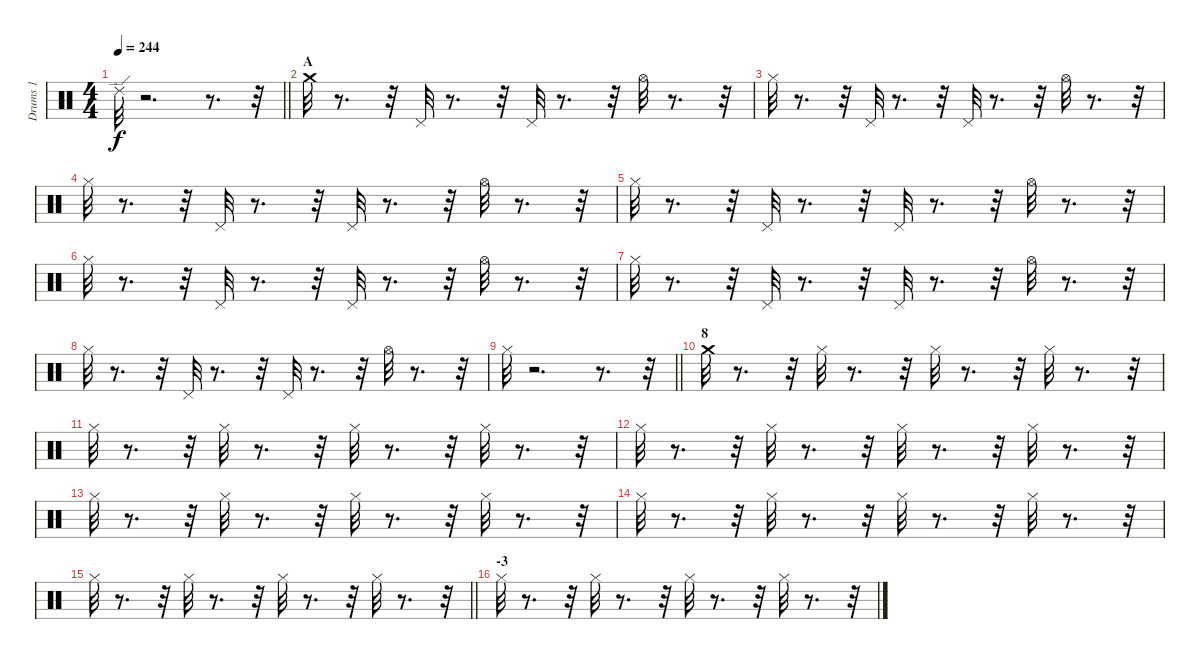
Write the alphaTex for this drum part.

\track ("Drums 1" "Drums 1") {instrument percussion}
\staff {score}
\articulation defaults
\ts (4 4)
\tempo 244
\clef neutral
\barLineRight lightlight
\ks c "Ride (edge) 2".32{dy f}
r.2{d} r.8{d} r.32 |
\section ("" "A")
"Crash medium (hit)".32 r.8{d} r.32 "Pedal Hi-Hat (hit)".32 r.8{d} r.32 "Pedal Hi-Hat (hit)".32 r.8{d} r.32 "Hi-Hat (open)".32 r.8{d} r.32 |
"Hi-Hat (closed)".32 r.8{d} r.32 "Pedal Hi-Hat (hit)".32 r.8{d} r.32 "Pedal Hi-Hat (hit)".32 r.8{d} r.32 "Hi-Hat (open)".32 r.8{d} r.32 |
"Hi-Hat (closed)".32 r.8{d} r.32 "Pedal Hi-Hat (hit)".32 r.8{d} r.32 "Pedal Hi-Hat (hit)".32 r.8{d} r.32 "Hi-Hat (open)".32 r.8{d} r.32 |
"Hi-Hat (closed)".32 r.8{d} r.32 "Pedal Hi-Hat (hit)".32 r.8{d} r.32 "Pedal Hi-Hat (hit)".32 r.8{d} r.32 "Hi-Hat (open)".32 r.8{d} r.32 |
"Hi-Hat (closed)".32 r.8{d} r.32 "Pedal Hi-Hat (hit)".32 r.8{d} r.32 "Pedal Hi-Hat (hit)".32 r.8{d} r.32 "Hi-Hat (open)".32 r.8{d} r.32 |
"Hi-Hat (closed)".32 r.8{d} r.32 "Pedal Hi-Hat (hit)".32 r.8{d} r.32 "Pedal Hi-Hat (hit)".32 r.8{d} r.32 "Hi-Hat (open)".32 r.8{d} r.32 |
"Hi-Hat (closed)".32 r.8{d} r.32 "Pedal Hi-Hat (hit)".32 r.8{d} r.32 "Pedal Hi-Hat (hit)".32 r.8{d} r.32 "Hi-Hat (open)".32 r.8{d} r.32 |
\barLineRight lightlight "Hi-Hat (closed)".32
r.2{d} r.8{d} r.32 |
\section ("" "8")
"Crash medium (hit)".32 r.8{d} r.32 "Hi-Hat (closed)".32 r.8{d} r.32 "Hi-Hat (closed)".32 r.8{d} r.32 "Hi-Hat (closed)".32 r.8{d} r.32 |
"Hi-Hat (closed)".32 r.8{d} r.32 "Hi-Hat (closed)".32 r.8{d} r.32 "Hi-Hat (closed)".32 r.8{d} r.32 "Hi-Hat (closed)".32 r.8{d} r.32 |
"Hi-Hat (closed)".32 r.8{d} r.32 "Hi-Hat (closed)".32 r.8{d} r.32 "Hi-Hat (closed)".32 r.8{d} r.32 "Hi-Hat (closed)".32 r.8{d} r.32 |
"Hi-Hat (closed)".32 r.8{d} r.32 "Hi-Hat (closed)".32 r.8{d} r.32 "Hi-Hat (closed)".32 r.8{d} r.32 "Hi-Hat (closed)".32 r.8{d} r.32 |
"Hi-Hat (closed)".32 r.8{d} r.32 "Hi-Hat (closed)".32 r.8{d} r.32 "Hi-Hat (closed)".32 r.8{d} r.32 "Hi-Hat (closed)".32 r.8{d} r.32 |
\barLineRight lightlight "Hi-Hat (closed)".32
r.8{d} r.32 "Hi-Hat (closed)".32 r.8{d} r.32 "Hi-Hat (closed)".32 r.8{d} r.32 "Hi-Hat (closed)".32 r.8{d} r.32 |
\section ("" "-3")
"Hi-Hat (closed)".32 r.8{d} r.32 "Hi-Hat (closed)".32 r.8{d} r.32 "Hi-Hat (closed)".32 r.8{d} r.32 "Hi-Hat (closed)".32 r.8{d} r.32
